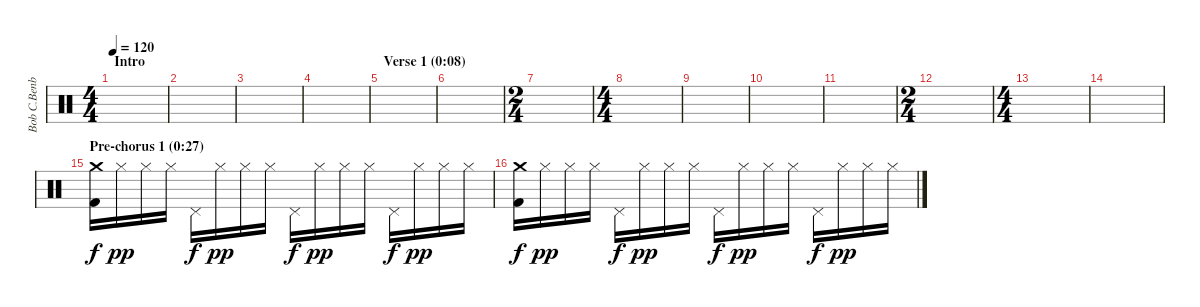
\track ("Bob C.Benberg (drums)" "Bob C.Benb") {instrument percussion}
\staff {score}
\articulation defaults
\ts (4 4)
\section ("" "Intro")
\tempo 120
\clef neutral
\ks c
|
|
|
|
\section ("" "Verse 1 (0:08)")
|
|
\ts (2 4)
|
\ts (4 4)
|
|
|
|
\ts (2 4)
|
\ts (4 4)
|
|
\section ("" "Pre-chorus 1 (0:27)")
("Crash medium (hit)" "Kick (hit) 2").16 "Hi-Hat (closed)".16{dy pp} "Hi-Hat (closed)".16 "Hi-Hat (closed)".16 "Pedal Hi-Hat (hit)".16{dy f} "Hi-Hat (closed)".16{dy pp} "Hi-Hat (closed)".16 "Hi-Hat (closed)".16 "Pedal Hi-Hat (hit)".16{dy f} "Hi-Hat (closed)".16{dy pp} "Hi-Hat (closed)".16 "Hi-Hat (closed)".16 "Pedal Hi-Hat (hit)".16{dy f} "Hi-Hat (closed)".16{dy pp} "Hi-Hat (closed)".16 "Hi-Hat (closed)".16 |
("Crash medium (hit)" "Kick (hit) 2").16{dy f} "Hi-Hat (closed)".16{dy pp} "Hi-Hat (closed)".16 "Hi-Hat (closed)".16 "Pedal Hi-Hat (hit)".16{dy f} "Hi-Hat (closed)".16{dy pp} "Hi-Hat (closed)".16 "Hi-Hat (closed)".16 "Pedal Hi-Hat (hit)".16{dy f} "Hi-Hat (closed)".16{dy pp} "Hi-Hat (closed)".16 "Hi-Hat (closed)".16 "Pedal Hi-Hat (hit)".16{dy f} "Hi-Hat (closed)".16{dy pp} "Hi-Hat (closed)".16 "Hi-Hat (closed)".16
